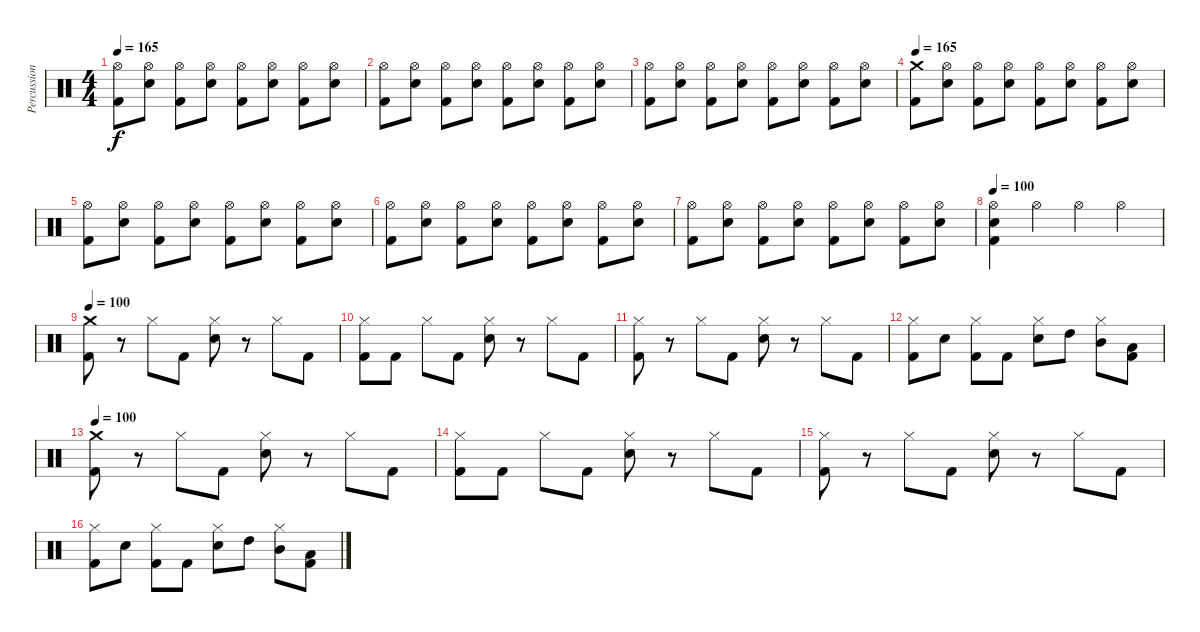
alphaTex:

\track ("Percussion" "Percussion") {instrument percussion}
\staff {score}
\articulation defaults
\ts (4 4)
\tempo 165
\clef neutral
\ks c
("Hi-Hat (open)" "Kick (hit) 2").8{dy f} ("Hi-Hat (open)" "Snare (hit) 2").8 ("Hi-Hat (open)" "Kick (hit) 2").8 ("Hi-Hat (open)" "Snare (hit) 2").8 ("Hi-Hat (open)" "Kick (hit) 2").8 ("Hi-Hat (open)" "Snare (hit) 2").8 ("Hi-Hat (open)" "Kick (hit) 2").8 ("Hi-Hat (open)" "Snare (hit) 2").8 |
("Hi-Hat (open)" "Kick (hit) 2").8 ("Hi-Hat (open)" "Snare (hit) 2").8 ("Hi-Hat (open)" "Kick (hit) 2").8 ("Hi-Hat (open)" "Snare (hit) 2").8 ("Hi-Hat (open)" "Kick (hit) 2").8 ("Hi-Hat (open)" "Snare (hit) 2").8 ("Hi-Hat (open)" "Kick (hit) 2").8 ("Hi-Hat (open)" "Snare (hit) 2").8 |
("Hi-Hat (open)" "Kick (hit) 2").8 ("Hi-Hat (open)" "Snare (hit) 2").8 ("Hi-Hat (open)" "Kick (hit) 2").8 ("Hi-Hat (open)" "Snare (hit) 2").8 ("Hi-Hat (open)" "Kick (hit) 2").8 ("Hi-Hat (open)" "Snare (hit) 2").8 ("Hi-Hat (open)" "Kick (hit) 2").8 ("Hi-Hat (open)" "Snare (hit) 2").8 |
\tempo 165
("Crash medium (hit)" "Kick (hit) 2").8 ("Hi-Hat (open)" "Snare (hit) 2").8 ("Hi-Hat (open)" "Kick (hit) 2").8 ("Hi-Hat (open)" "Snare (hit) 2").8 ("Hi-Hat (open)" "Kick (hit) 2").8 ("Hi-Hat (open)" "Snare (hit) 2").8 ("Hi-Hat (open)" "Kick (hit) 2").8 ("Hi-Hat (open)" "Snare (hit) 2").8 |
("Hi-Hat (open)" "Kick (hit) 2").8 ("Hi-Hat (open)" "Snare (hit) 2").8 ("Hi-Hat (open)" "Kick (hit) 2").8 ("Hi-Hat (open)" "Snare (hit) 2").8 ("Hi-Hat (open)" "Kick (hit) 2").8 ("Hi-Hat (open)" "Snare (hit) 2").8 ("Hi-Hat (open)" "Kick (hit) 2").8 ("Hi-Hat (open)" "Snare (hit) 2").8 |
("Hi-Hat (open)" "Kick (hit) 2").8 ("Hi-Hat (open)" "Snare (hit) 2").8 ("Hi-Hat (open)" "Kick (hit) 2").8 ("Hi-Hat (open)" "Snare (hit) 2").8 ("Hi-Hat (open)" "Kick (hit) 2").8 ("Hi-Hat (open)" "Snare (hit) 2").8 ("Hi-Hat (open)" "Kick (hit) 2").8 ("Hi-Hat (open)" "Snare (hit) 2").8 |
("Hi-Hat (open)" "Kick (hit) 2").8 ("Hi-Hat (open)" "Snare (hit) 2").8 ("Hi-Hat (open)" "Kick (hit) 2").8 ("Hi-Hat (open)" "Snare (hit) 2").8 ("Hi-Hat (open)" "Kick (hit) 2").8 ("Hi-Hat (open)" "Snare (hit) 2").8 ("Hi-Hat (open)" "Kick (hit) 2").8 ("Hi-Hat (open)" "Snare (hit) 2").8 |
\tempo 100
("Hi-Hat (open)" "Snare (hit) 2" "Kick (hit) 2").4 "Hi-Hat (open)".4 "Hi-Hat (open)".4 "Hi-Hat (open)".4 |
\tempo 100
("Crash medium (hit)" "Kick (hit) 2").8{volume 12} r.8 "Hi-Hat (closed)".8 "Kick (hit) 2".8 ("Hi-Hat (closed)" "Snare (hit) 2").8 r.8 "Hi-Hat (closed)".8 "Kick (hit) 2".8 |
("Hi-Hat (closed)" "Kick (hit) 2").8 "Kick (hit) 2".8 "Hi-Hat (closed)".8 "Kick (hit) 2".8 ("Hi-Hat (closed)" "Snare (hit) 2").8 r.8 "Hi-Hat (closed)".8 "Kick (hit) 2".8 |
("Hi-Hat (closed)" "Kick (hit) 2").8 r.8 "Hi-Hat (closed)".8 "Kick (hit) 2".8 ("Hi-Hat (closed)" "Snare (hit) 2").8 r.8 "Hi-Hat (closed)".8 "Kick (hit) 2".8 |
("Hi-Hat (closed)" "Kick (hit) 2").8 "Snare (hit) 2".8 ("Hi-Hat (closed)" "Kick (hit) 2").8 "Kick (hit) 2".8 ("Hi-Hat (closed)" "Snare (hit) 2").8 "High Tom (hit)".8 ("Hi-Hat (closed)" "Mid Tom (hit)").8 ("Low Tom (hit)" "Kick (hit) 2").8 |
\tempo 100
("Crash medium (hit)" "Kick (hit) 2").8 r.8 "Hi-Hat (closed)".8 "Kick (hit) 2".8 ("Hi-Hat (closed)" "Snare (hit) 2").8 r.8 "Hi-Hat (closed)".8 "Kick (hit) 2".8 |
("Hi-Hat (closed)" "Kick (hit) 2").8 "Kick (hit) 2".8 "Hi-Hat (closed)".8 "Kick (hit) 2".8 ("Hi-Hat (closed)" "Snare (hit) 2").8 r.8 "Hi-Hat (closed)".8 "Kick (hit) 2".8 |
("Hi-Hat (closed)" "Kick (hit) 2").8 r.8 "Hi-Hat (closed)".8 "Kick (hit) 2".8 ("Hi-Hat (closed)" "Snare (hit) 2").8 r.8 "Hi-Hat (closed)".8 "Kick (hit) 2".8 |
("Hi-Hat (closed)" "Kick (hit) 2").8 "Snare (hit) 2".8 ("Hi-Hat (closed)" "Kick (hit) 2").8 "Kick (hit) 2".8 ("Hi-Hat (closed)" "Snare (hit) 2").8 "High Tom (hit)".8 ("Hi-Hat (closed)" "Mid Tom (hit)").8 ("Low Tom (hit)" "Kick (hit) 2").8
